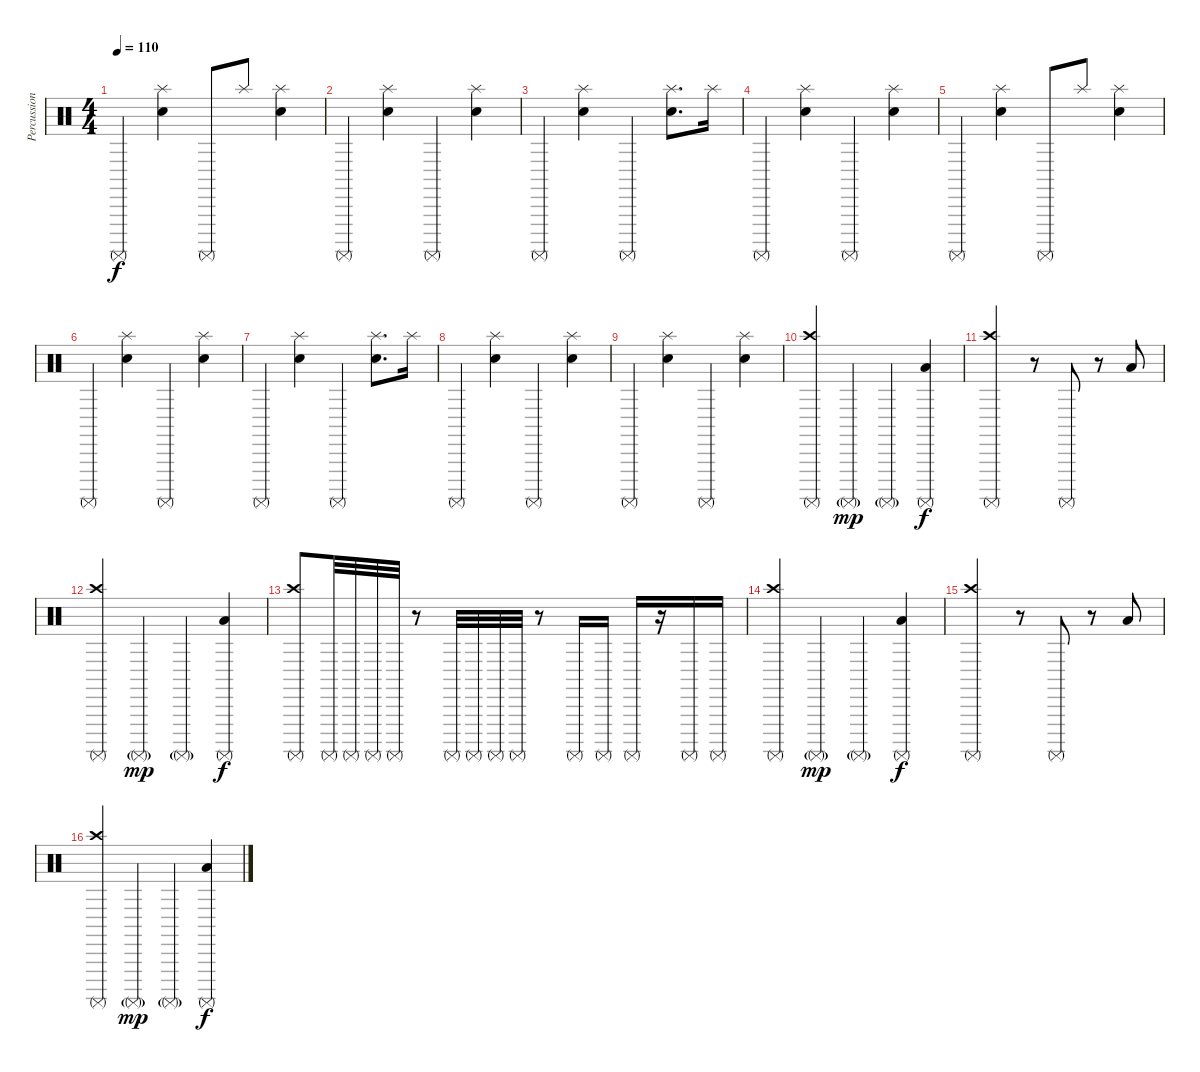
\track ("Percussions" "Percussion") {instrument percussion}
\staff {score}
\articulation defaults
\ts (4 4)
\tempo 110
\clef neutral
\ks c "Surdo (mute)".4{dy f}
("Splash (hit)" "Snare (hit) 2").4 "Surdo (mute)".8 "Splash (hit)".8 ("Splash (hit)" "Snare (hit) 2").4 |
"Surdo (mute)".4 ("Splash (hit)" "Snare (hit) 2").4 "Surdo (mute)".4 ("Splash (hit)" "Snare (hit) 2").4 |
"Surdo (mute)".4 ("Splash (hit)" "Snare (hit) 2").4 "Surdo (mute)".4 ("Splash (hit)" "Snare (hit) 2").8{d} "Splash (hit)".16 |
"Surdo (mute)".4 ("Splash (hit)" "Snare (hit) 2").4 "Surdo (mute)".4 ("Splash (hit)" "Snare (hit) 2").4 |
"Surdo (mute)".4 ("Splash (hit)" "Snare (hit) 2").4 "Surdo (mute)".8 "Splash (hit)".8 ("Splash (hit)" "Snare (hit) 2").4 |
"Surdo (mute)".4 ("Splash (hit)" "Snare (hit) 2").4 "Surdo (mute)".4 ("Splash (hit)" "Snare (hit) 2").4 |
"Surdo (mute)".4 ("Splash (hit)" "Snare (hit) 2").4 "Surdo (mute)".4 ("Splash (hit)" "Snare (hit) 2").8{d} "Splash (hit)".16 |
"Surdo (mute)".4 ("Splash (hit)" "Snare (hit) 2").4 "Surdo (mute)".4 ("Splash (hit)" "Snare (hit) 2").4 |
"Surdo (mute)".4 ("Splash (hit)" "Snare (hit) 2").4 "Surdo (mute)".4 ("Splash (hit)" "Snare (hit) 2").4 |
("Crash high (hit)" "Surdo (mute)").4 "Surdo (mute)"{g}.4{dy mp} "Surdo (mute)"{g}.4 ("Surdo (mute)" "Low Floor Tom (hit)").4{dy f} |
("Crash high (hit)" "Surdo (mute)").2 r.8 "Surdo (mute)".8 r.8 "Low Floor Tom (hit)".8 |
("Crash high (hit)" "Surdo (mute)").4 "Surdo (mute)"{g}.4{dy mp} "Surdo (mute)"{g}.4 ("Surdo (mute)" "Low Floor Tom (hit)").4{dy f} |
("Crash high (hit)" "Surdo (mute)").8 "Surdo (mute)".32 "Surdo (mute)".32 "Surdo (mute)".32 "Surdo (mute)".32 r.8 "Surdo (mute)".32 "Surdo (mute)".32 "Surdo (mute)".32 "Surdo (mute)".32 r.8 "Surdo (mute)".16 "Surdo (mute)".16 "Surdo (mute)".16 r.16 "Surdo (mute)".16 "Surdo (mute)".16 |
("Crash high (hit)" "Surdo (mute)").4 "Surdo (mute)"{g}.4{dy mp} "Surdo (mute)"{g}.4 ("Surdo (mute)" "Low Floor Tom (hit)").4{dy f} |
("Crash high (hit)" "Surdo (mute)").2 r.8 "Surdo (mute)".8 r.8 "Low Floor Tom (hit)".8 |
("Crash high (hit)" "Surdo (mute)").4 "Surdo (mute)"{g}.4{dy mp} "Surdo (mute)"{g}.4 ("Surdo (mute)" "Low Floor Tom (hit)").4{dy f}
